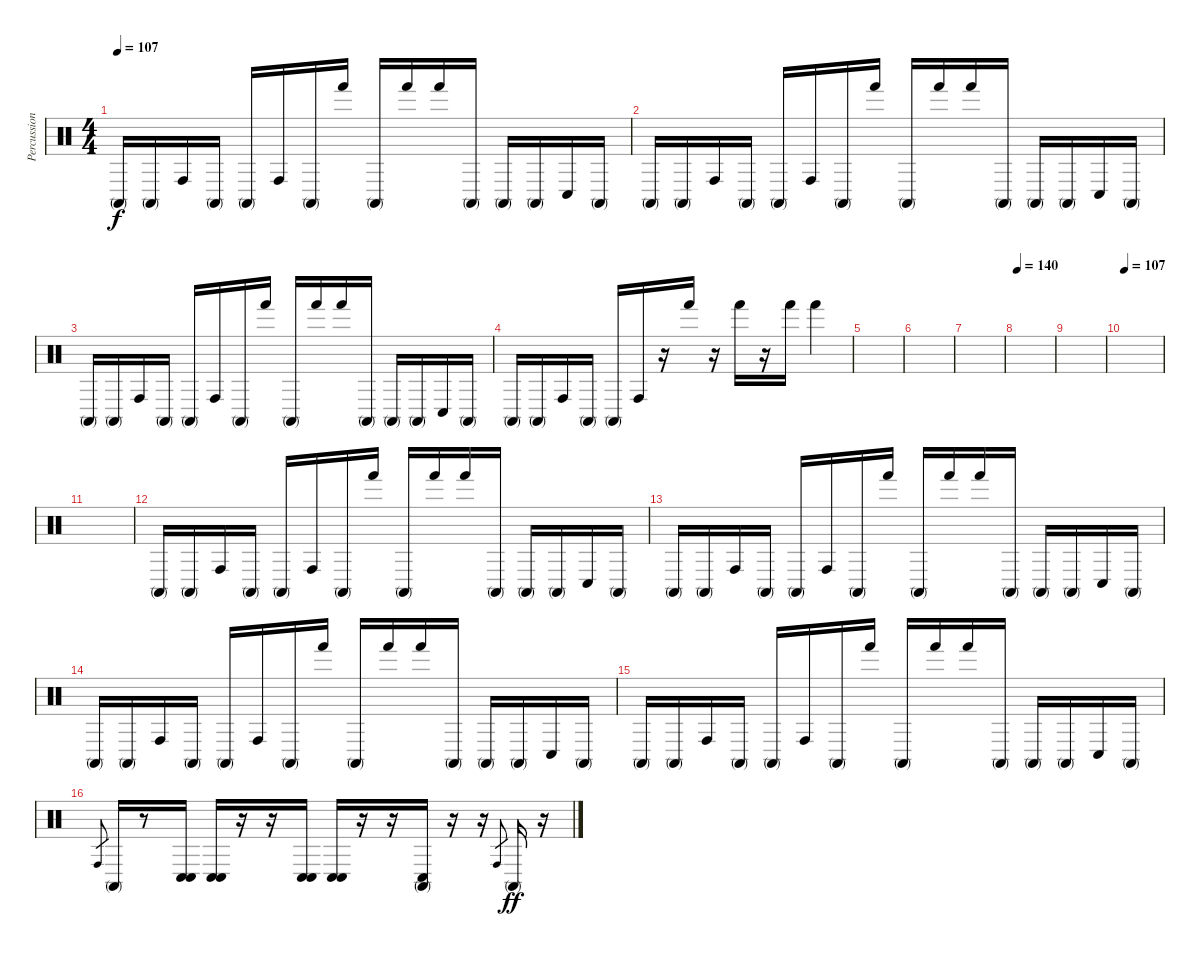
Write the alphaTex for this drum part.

\track ("Percussioni" "Percussion") {instrument percussion}
\staff {score}
\articulation defaults
\ts (4 4)
\tempo 107
\clef neutral
\ks c "Conga high (mute)".16{dy f} "Conga high (mute)".16 "Conga high (hit)".16 "Conga high (mute)".16 "Conga high (mute)".16 "Conga high (hit)".16 "Conga high (mute)".16 "Hand (hit)".16 "Conga high (mute)".16 "Hand (hit)".16 "Hand (hit)".16 "Conga high (mute)".16 "Conga high (mute)".16 "Conga high (mute)".16 "Conga low (hit)".16 "Conga high (mute)".16
|
"Conga high (mute)".16 "Conga high (mute)".16 "Conga high (hit)".16 "Conga high (mute)".16 "Conga high (mute)".16 "Conga high (hit)".16 "Conga high (mute)".16 "Hand (hit)".16 "Conga high (mute)".16 "Hand (hit)".16 "Hand (hit)".16 "Conga high (mute)".16 "Conga high (mute)".16 "Conga high (mute)".16 "Conga low (hit)".16 "Conga high (mute)".16 |
"Conga high (mute)".16 "Conga high (mute)".16 "Conga high (hit)".16 "Conga high (mute)".16 "Conga high (mute)".16 "Conga high (hit)".16 "Conga high (mute)".16 "Hand (hit)".16 "Conga high (mute)".16 "Hand (hit)".16 "Hand (hit)".16 "Conga high (mute)".16 "Conga high (mute)".16 "Conga high (mute)".16 "Conga low (hit)".16 "Conga high (mute)".16 |
"Conga high (mute)".16 "Conga high (mute)".16 "Conga high (hit)".16 "Conga high (mute)".16 "Conga high (mute)".16 "Conga high (hit)".16 r.16 "Hand (hit)".16 r.16 "Hand (hit)".16 r.16 "Hand (hit)".16 "Hand (hit)".4 |
|
|
|
\tempo 140
|
|
\tempo 107
|
|
"Conga high (mute)".16 "Conga high (mute)".16 "Conga high (hit)".16 "Conga high (mute)".16 "Conga high (mute)".16 "Conga high (hit)".16 "Conga high (mute)".16 "Hand (hit)".16 "Conga high (mute)".16 "Hand (hit)".16 "Hand (hit)".16 "Conga high (mute)".16 "Conga high (mute)".16 "Conga high (mute)".16 "Conga low (hit)".16 "Conga high (mute)".16 |
"Conga high (mute)".16 "Conga high (mute)".16 "Conga high (hit)".16 "Conga high (mute)".16 "Conga high (mute)".16 "Conga high (hit)".16 "Conga high (mute)".16 "Hand (hit)".16 "Conga high (mute)".16 "Hand (hit)".16 "Hand (hit)".16 "Conga high (mute)".16 "Conga high (mute)".16 "Conga high (mute)".16 "Conga low (hit)".16 "Conga high (mute)".16 |
"Conga high (mute)".16 "Conga high (mute)".16 "Conga high (hit)".16 "Conga high (mute)".16 "Conga high (mute)".16 "Conga high (hit)".16 "Conga high (mute)".16 "Hand (hit)".16 "Conga high (mute)".16 "Hand (hit)".16 "Hand (hit)".16 "Conga high (mute)".16 "Conga high (mute)".16 "Conga high (mute)".16 "Conga low (hit)".16 "Conga high (mute)".16 |
"Conga high (mute)".16 "Conga high (mute)".16 "Conga high (hit)".16 "Conga high (mute)".16 "Conga high (mute)".16 "Conga high (hit)".16 "Conga high (mute)".16 "Hand (hit)".16 "Conga high (mute)".16 "Hand (hit)".16 "Hand (hit)".16 "Conga high (mute)".16 "Conga high (mute)".16 "Conga high (mute)".16 "Conga low (hit)".16 "Conga high (mute)".16 |
"Conga high (hit)".8{gr} "Conga high (mute)".16 r.8 ("Conga low (hit)" "Conga low (hit)").16 ("Conga low (hit)" "Conga low (hit)").16 r.16 r.16 ("Conga low (hit)" "Conga low (hit)").16 ("Conga low (hit)" "Conga low (hit)").16 r.16 r.16 ("Conga high (mute)" "Conga low (hit)").16 r.16 r.16 "Conga high (hit)".8{gr} "Conga high (mute)".16{dy ff} r.16
